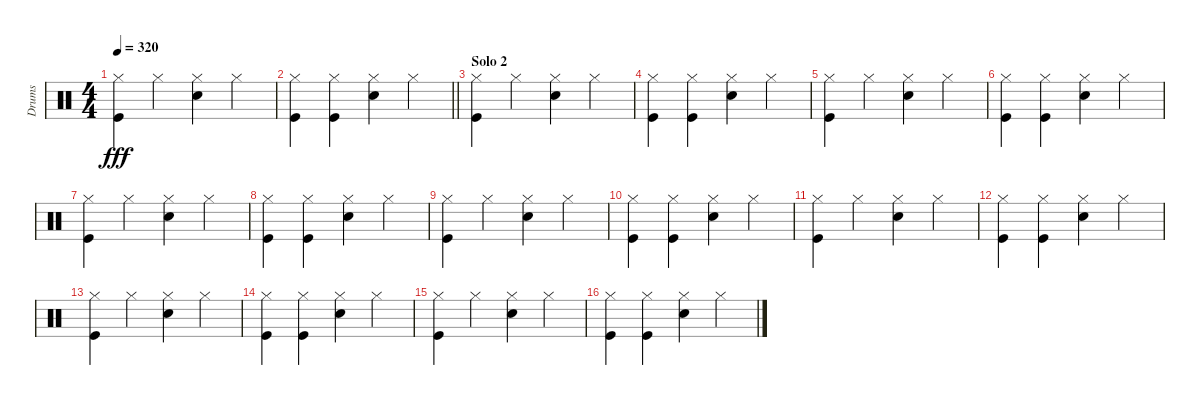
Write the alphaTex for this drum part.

\track ("Drums" "Drums") {instrument percussion}
\staff {score}
\articulation defaults
\ts (4 4)
\tempo 320
\clef neutral
\ks c
("Hi-Hat (closed)" "Kick (hit)").4{dy fff} "Hi-Hat (closed)".4 ("Hi-Hat (closed)" "Snare (hit) 2").4 "Hi-Hat (closed)".4 |
\barLineRight lightlight
("Hi-Hat (closed)" "Kick (hit)").4 ("Hi-Hat (closed)" "Kick (hit)").4 ("Hi-Hat (closed)" "Snare (hit) 2").4 "Hi-Hat (closed)".4 |
\section ("" "Solo 2")
("Hi-Hat (closed)" "Kick (hit)").4 "Hi-Hat (closed)".4 ("Hi-Hat (closed)" "Snare (hit) 2").4 "Hi-Hat (closed)".4 |
("Hi-Hat (closed)" "Kick (hit)").4 ("Hi-Hat (closed)" "Kick (hit)").4 ("Hi-Hat (closed)" "Snare (hit) 2").4 "Hi-Hat (closed)".4 |
("Hi-Hat (closed)" "Kick (hit)").4 "Hi-Hat (closed)".4 ("Hi-Hat (closed)" "Snare (hit) 2").4 "Hi-Hat (closed)".4 |
("Hi-Hat (closed)" "Kick (hit)").4 ("Hi-Hat (closed)" "Kick (hit)").4 ("Hi-Hat (closed)" "Snare (hit) 2").4 "Hi-Hat (closed)".4 |
("Hi-Hat (closed)" "Kick (hit)").4 "Hi-Hat (closed)".4 ("Hi-Hat (closed)" "Snare (hit) 2").4 "Hi-Hat (closed)".4 |
("Hi-Hat (closed)" "Kick (hit)").4 ("Hi-Hat (closed)" "Kick (hit)").4 ("Hi-Hat (closed)" "Snare (hit) 2").4 "Hi-Hat (closed)".4 |
("Hi-Hat (closed)" "Kick (hit)").4 "Hi-Hat (closed)".4 ("Hi-Hat (closed)" "Snare (hit) 2").4 "Hi-Hat (closed)".4 |
("Hi-Hat (closed)" "Kick (hit)").4 ("Hi-Hat (closed)" "Kick (hit)").4 ("Hi-Hat (closed)" "Snare (hit) 2").4 "Hi-Hat (closed)".4 |
("Hi-Hat (closed)" "Kick (hit)").4 "Hi-Hat (closed)".4 ("Hi-Hat (closed)" "Snare (hit) 2").4 "Hi-Hat (closed)".4 |
("Hi-Hat (closed)" "Kick (hit)").4 ("Hi-Hat (closed)" "Kick (hit)").4 ("Hi-Hat (closed)" "Snare (hit) 2").4 "Hi-Hat (closed)".4 |
("Hi-Hat (closed)" "Kick (hit)").4 "Hi-Hat (closed)".4 ("Hi-Hat (closed)" "Snare (hit) 2").4 "Hi-Hat (closed)".4 |
("Hi-Hat (closed)" "Kick (hit)").4 ("Hi-Hat (closed)" "Kick (hit)").4 ("Hi-Hat (closed)" "Snare (hit) 2").4 "Hi-Hat (closed)".4 |
("Hi-Hat (closed)" "Kick (hit)").4 "Hi-Hat (closed)".4 ("Hi-Hat (closed)" "Snare (hit) 2").4 "Hi-Hat (closed)".4 |
("Hi-Hat (closed)" "Kick (hit)").4 ("Hi-Hat (closed)" "Kick (hit)").4 ("Hi-Hat (closed)" "Snare (hit) 2").4 "Hi-Hat (closed)".4
